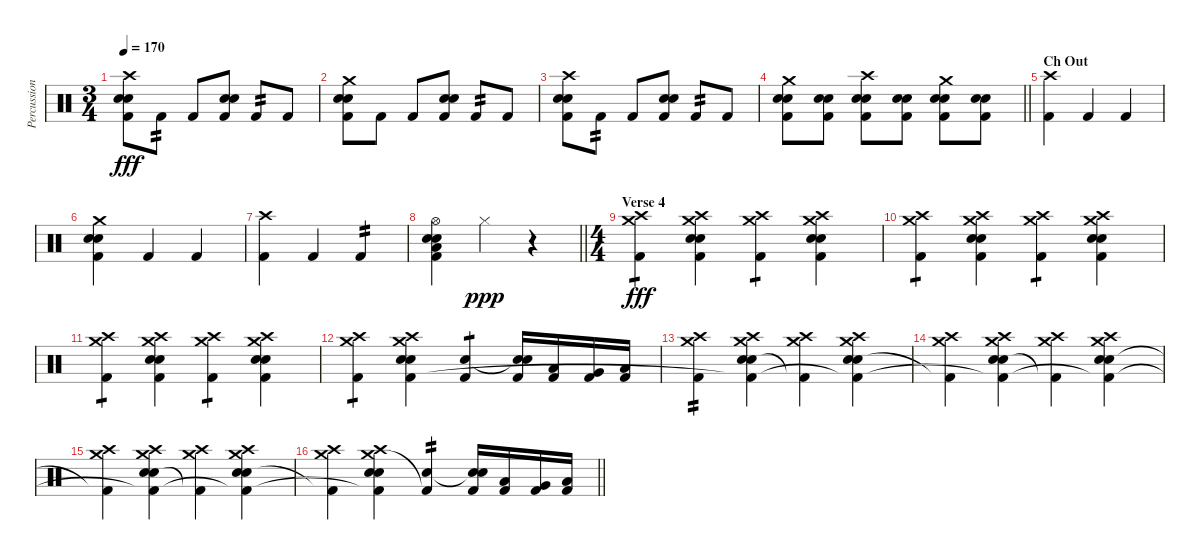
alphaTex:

\track ("Percussion" "Percussion") {instrument percussion}
\staff {score}
\articulation defaults
\ts (3 4)
\tempo 170
\clef neutral
\ks c
("Crash high (hit)" "Electric Snare (hit)" "Snare (hit) 2" "Kick (hit) 2").8{dy fff} "Kick (hit) 2".8{tp 2} "Kick (hit) 2".8 ("Electric Snare (hit)" "Snare (hit) 2" "Kick (hit) 2").8 "Kick (hit) 2".8{tp 2} "Kick (hit) 2".8 |
("Crash medium (hit)" "Electric Snare (hit)" "Snare (hit) 2" "Kick (hit) 2").8 "Kick (hit) 2".8 "Kick (hit) 2".8 ("Electric Snare (hit)" "Snare (hit) 2" "Kick (hit) 2").8 "Kick (hit) 2".8{tp 2} "Kick (hit) 2".8 |
("Crash high (hit)" "Electric Snare (hit)" "Snare (hit) 2" "Kick (hit) 2").8 "Kick (hit) 2".8{tp 2} "Kick (hit) 2".8 ("Electric Snare (hit)" "Snare (hit) 2" "Kick (hit) 2").8 "Kick (hit) 2".8{tp 2} "Kick (hit) 2".8 |
\barLineRight lightlight
("Crash medium (hit)" "Electric Snare (hit)" "Snare (hit) 2" "Kick (hit) 2").8 ("Electric Snare (hit)" "Snare (hit) 2" "Kick (hit) 2").8 ("Crash high (hit)" "Electric Snare (hit)" "Snare (hit) 2" "Kick (hit) 2").8 ("Electric Snare (hit)" "Snare (hit) 2" "Kick (hit) 2").8 ("Crash medium (hit)" "Electric Snare (hit)" "Snare (hit) 2" "Kick (hit) 2").8 ("Electric Snare (hit)" "Snare (hit) 2" "Kick (hit) 2").8 |
\section ("" "Ch Out")
("Crash high (hit)" "Kick (hit) 2").4 "Kick (hit) 2".4 "Kick (hit) 2".4 |
("Crash medium (hit)" "Electric Snare (hit)" "Snare (hit) 2" "Kick (hit) 2").4 "Kick (hit) 2".4 "Kick (hit) 2".4 |
("Crash high (hit)" "Kick (hit) 2").4 "Kick (hit) 2".4 "Kick (hit) 2".4{tp 2} |
\barLineRight lightlight
("Hi-Hat (open)" "Electric Snare (hit)" "Snare (hit) 2" "Low Floor Tom (hit)" "Kick (hit) 2").4 "Hi-Hat (closed)".4{dy ppp} r.4 |
\ts (4 4)
\section ("" "Verse 4")
("Crash high (hit)" "Crash medium (hit)" "Kick (hit) 2").4{tp 1 dy fff} ("Crash high (hit)" "Crash medium (hit)" "Electric Snare (hit)" "Snare (hit) 2" "Kick (hit) 2").4 ("Crash high (hit)" "Crash medium (hit)" "Kick (hit) 2").4{tp 1} ("Crash high (hit)" "Crash medium (hit)" "Electric Snare (hit)" "Snare (hit) 2" "Kick (hit) 2").4 |
("Crash high (hit)" "Crash medium (hit)" "Kick (hit) 2").4{tp 1} ("Crash high (hit)" "Crash medium (hit)" "Electric Snare (hit)" "Snare (hit) 2" "Kick (hit) 2").4 ("Crash high (hit)" "Crash medium (hit)" "Kick (hit) 2").4{tp 1} ("Crash high (hit)" "Crash medium (hit)" "Electric Snare (hit)" "Snare (hit) 2" "Kick (hit) 2").4 |
("Crash high (hit)" "Crash medium (hit)" "Kick (hit) 2").4{tp 1} ("Crash high (hit)" "Crash medium (hit)" "Electric Snare (hit)" "Snare (hit) 2" "Kick (hit) 2").4 ("Crash high (hit)" "Crash medium (hit)" "Kick (hit) 2").4{tp 1} ("Crash high (hit)" "Crash medium (hit)" "Electric Snare (hit)" "Snare (hit) 2" "Kick (hit) 2").4 |
("Crash high (hit)" "Crash medium (hit)" "Kick (hit) 2").4{tp 1} ("Crash high (hit)" "Crash medium (hit)" "Electric Snare (hit)" "Snare (hit) 2" "Kick (hit) 2").4 ("Electric Snare (hit)" "Kick (hit) 2").4{tp 1} ("Electric Snare (hit)"{t} "Snare (hit) 2" "Kick (hit) 2").16 ("Low Tom (hit)" "Kick (hit) 2").16 ("Very Low Tom (hit)" "Kick (hit) 2").16 ("Low Floor Tom (hit)" "Kick (hit) 2").16 |
("Crash high (hit)" "Crash medium (hit)" "Kick (hit) 2").4{tp 2} ("Crash high (hit)" "Crash medium (hit)" "Electric Snare (hit)" "Snare (hit) 2" "Kick (hit) 2"{t}).4 ("Crash high (hit)" "Crash medium (hit)" "Kick (hit) 2"{t}).4 ("Crash high (hit)" "Crash medium (hit)" "Electric Snare (hit)" "Snare (hit) 2" "Kick (hit) 2"{t}).4 |
("Crash high (hit)" "Crash medium (hit)" "Kick (hit) 2"{t}).4 ("Crash high (hit)" "Crash medium (hit)" "Electric Snare (hit)" "Snare (hit) 2" "Kick (hit) 2"{t}).4 ("Crash high (hit)" "Crash medium (hit)" "Kick (hit) 2"{t}).4 ("Crash high (hit)" "Crash medium (hit)" "Electric Snare (hit)" "Snare (hit) 2" "Kick (hit) 2"{t}).4 |
("Crash high (hit)" "Crash medium (hit)" "Kick (hit) 2"{t}).4 ("Crash high (hit)" "Crash medium (hit)" "Electric Snare (hit)" "Snare (hit) 2" "Kick (hit) 2"{t}).4 ("Crash high (hit)" "Crash medium (hit)" "Kick (hit) 2"{t}).4 ("Crash high (hit)" "Crash medium (hit)" "Electric Snare (hit)" "Snare (hit) 2" "Kick (hit) 2"{t}).4 |
\barLineRight lightlight
("Crash high (hit)" "Crash medium (hit)" "Kick (hit) 2"{t}).4 ("Crash high (hit)" "Crash medium (hit)" "Electric Snare (hit)" "Snare (hit) 2" "Kick (hit) 2"{t}).4 ("Electric Snare (hit)" "Kick (hit) 2"{t}).4{tp 2} ("Electric Snare (hit)"{t} "Snare (hit) 2" "Kick (hit) 2").16 ("Low Tom (hit)" "Kick (hit) 2").16 ("Very Low Tom (hit)" "Kick (hit) 2").16 ("Low Floor Tom (hit)" "Kick (hit) 2").16
